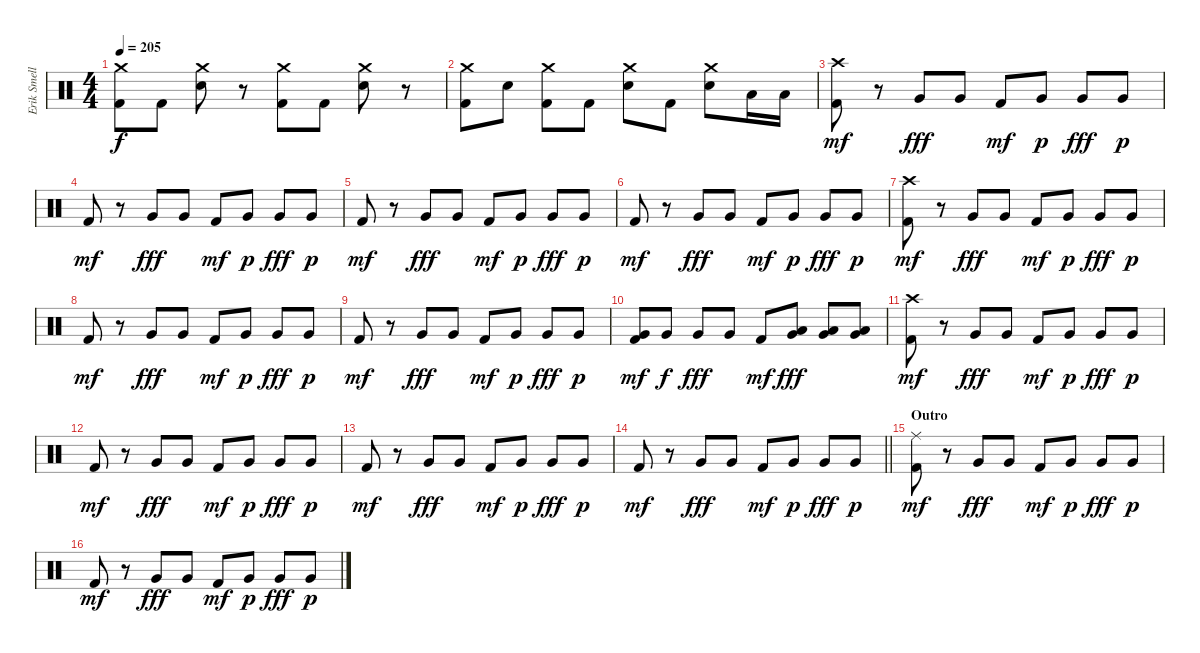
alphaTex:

\track ("Erik Smelly" "Erik Smell") {instrument percussion}
\staff {score}
\articulation defaults
\ts (4 4)
\tempo 205
\clef neutral
\ks c
("Crash medium (hit)" "Kick (hit) 2").8{dy f} "Kick (hit) 2".8 ("Crash medium (hit)" "Electric Snare (hit)").8 r.8 ("Crash medium (hit)" "Kick (hit) 2").8 "Kick (hit) 2".8 ("Crash medium (hit)" "Electric Snare (hit)").8 r.8 |
("Crash medium (hit)" "Kick (hit) 2").8 "Electric Snare (hit)".8 ("Crash medium (hit)" "Kick (hit) 2").8 "Kick (hit) 2".8 ("Crash medium (hit)" "Electric Snare (hit)").8 "Kick (hit) 2".8 ("Crash medium (hit)" "Electric Snare (hit)").8 "Low Tom (hit)".16 "Low Tom (hit)".16 |
("Crash high (hit)" "Kick (hit) 2").8{dy mf} r.8 "Very Low Tom (hit)".8{dy fff} "Very Low Tom (hit)".8 "Kick (hit) 2".8{dy mf} "Very Low Tom (hit)".8{dy p} "Very Low Tom (hit)".8{dy fff} "Very Low Tom (hit)".8{dy p} |
"Kick (hit) 2".8{dy mf} r.8 "Very Low Tom (hit)".8{dy fff} "Very Low Tom (hit)".8 "Kick (hit) 2".8{dy mf} "Very Low Tom (hit)".8{dy p} "Very Low Tom (hit)".8{dy fff} "Very Low Tom (hit)".8{dy p} |
"Kick (hit) 2".8{dy mf} r.8 "Very Low Tom (hit)".8{dy fff} "Very Low Tom (hit)".8 "Kick (hit) 2".8{dy mf} "Very Low Tom (hit)".8{dy p} "Very Low Tom (hit)".8{dy fff} "Very Low Tom (hit)".8{dy p} |
"Kick (hit) 2".8{dy mf} r.8 "Very Low Tom (hit)".8{dy fff} "Very Low Tom (hit)".8 "Kick (hit) 2".8{dy mf} "Very Low Tom (hit)".8{dy p} "Very Low Tom (hit)".8{dy fff} "Very Low Tom (hit)".8{dy p} |
("Crash high (hit)" "Kick (hit) 2").8{dy mf} r.8 "Very Low Tom (hit)".8{dy fff} "Very Low Tom (hit)".8 "Kick (hit) 2".8{dy mf} "Very Low Tom (hit)".8{dy p} "Very Low Tom (hit)".8{dy fff} "Very Low Tom (hit)".8{dy p} |
"Kick (hit) 2".8{dy mf} r.8 "Very Low Tom (hit)".8{dy fff} "Very Low Tom (hit)".8 "Kick (hit) 2".8{dy mf} "Very Low Tom (hit)".8{dy p} "Very Low Tom (hit)".8{dy fff} "Very Low Tom (hit)".8{dy p} |
"Kick (hit) 2".8{dy mf} r.8 "Very Low Tom (hit)".8{dy fff} "Very Low Tom (hit)".8 "Kick (hit) 2".8{dy mf} "Very Low Tom (hit)".8{dy p} "Very Low Tom (hit)".8{dy fff} "Very Low Tom (hit)".8{dy p} |
("Very Low Tom (hit)" "Kick (hit) 2").8{dy mf} "Very Low Tom (hit)".8{dy f} "Very Low Tom (hit)".8{dy fff} "Very Low Tom (hit)".8 "Kick (hit) 2".8{dy mf} ("Low Tom (hit)" "Very Low Tom (hit)").8{dy fff} ("Low Tom (hit)" "Very Low Tom (hit)").8 ("Low Tom (hit)" "Very Low Tom (hit)").8 |
("Crash high (hit)" "Kick (hit) 2").8{dy mf} r.8 "Very Low Tom (hit)".8{dy fff} "Very Low Tom (hit)".8 "Kick (hit) 2".8{dy mf} "Very Low Tom (hit)".8{dy p} "Very Low Tom (hit)".8{dy fff} "Very Low Tom (hit)".8{dy p} |
"Kick (hit) 2".8{dy mf} r.8 "Very Low Tom (hit)".8{dy fff} "Very Low Tom (hit)".8 "Kick (hit) 2".8{dy mf} "Very Low Tom (hit)".8{dy p} "Very Low Tom (hit)".8{dy fff} "Very Low Tom (hit)".8{dy p} |
"Kick (hit) 2".8{dy mf} r.8 "Very Low Tom (hit)".8{dy fff} "Very Low Tom (hit)".8 "Kick (hit) 2".8{dy mf} "Very Low Tom (hit)".8{dy p} "Very Low Tom (hit)".8{dy fff} "Very Low Tom (hit)".8{dy p} |
\barLineRight lightlight "Kick (hit) 2".8{dy mf}
r.8 "Very Low Tom (hit)".8{dy fff} "Very Low Tom (hit)".8 "Kick (hit) 2".8{dy mf} "Very Low Tom (hit)".8{dy p} "Very Low Tom (hit)".8{dy fff} "Very Low Tom (hit)".8{dy p} |
\section ("" "Outro")
("Ride (middle)" "Kick (hit) 2").8{dy mf} r.8 "Very Low Tom (hit)".8{dy fff} "Very Low Tom (hit)".8 "Kick (hit) 2".8{dy mf} "Very Low Tom (hit)".8{dy p} "Very Low Tom (hit)".8{dy fff} "Very Low Tom (hit)".8{dy p} |
"Kick (hit) 2".8{dy mf} r.8 "Very Low Tom (hit)".8{dy fff} "Very Low Tom (hit)".8 "Kick (hit) 2".8{dy mf} "Very Low Tom (hit)".8{dy p} "Very Low Tom (hit)".8{dy fff} "Very Low Tom (hit)".8{dy p}
